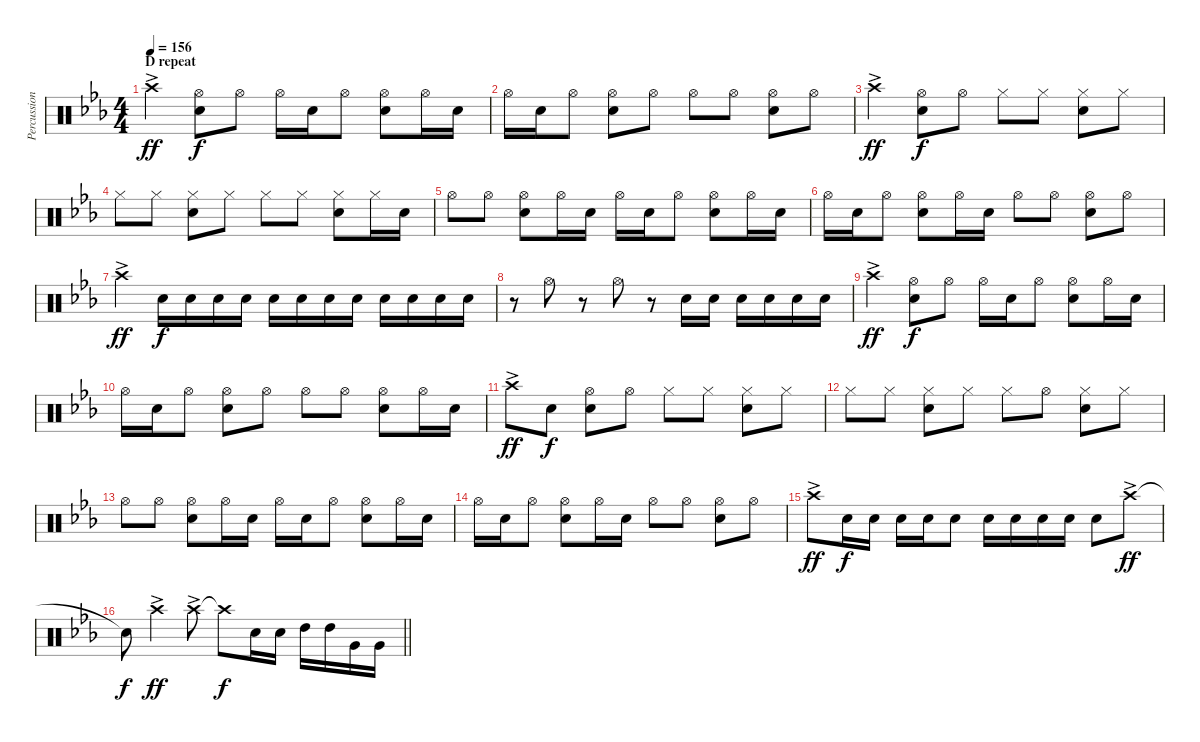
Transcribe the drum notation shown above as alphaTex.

\track ("Percussion hand" "Percussion") {instrument percussion}
\staff {score}
\articulation defaults
\ts (4 4)
\section ("" "D repeat")
\tempo 156
\clef neutral
\ks eb "Crash high (hit)"{ac}.4{dy ff}
("Hi-Hat (open)" "Snare (hit) 2").8{dy f} "Hi-Hat (open)".8 "Hi-Hat (open)".16 "Snare (hit) 2".16 "Hi-Hat (open)".8 ("Hi-Hat (open)" "Snare (hit) 2").8 "Hi-Hat (open)".16 "Snare (hit) 2".16 |
"Hi-Hat (open)".16 "Snare (hit) 2".16 "Hi-Hat (open)".8 ("Hi-Hat (open)" "Snare (hit) 2").8 "Hi-Hat (open)".8 "Hi-Hat (open)".8 "Hi-Hat (open)".8 ("Hi-Hat (open)" "Snare (hit) 2").8 "Hi-Hat (open)".8 |
"Crash high (hit)"{ac}.4{dy ff} ("Hi-Hat (open)" "Snare (hit) 2").8{dy f} "Hi-Hat (open)".8 "Hi-Hat (closed)".8 "Hi-Hat (closed)".8 ("Hi-Hat (closed)" "Snare (hit) 2").8 "Hi-Hat (closed)".8 |
"Hi-Hat (closed)".8 "Hi-Hat (closed)".8 ("Hi-Hat (closed)" "Snare (hit) 2").8 "Hi-Hat (closed)".8 "Hi-Hat (closed)".8 "Hi-Hat (closed)".8 ("Hi-Hat (closed)" "Snare (hit) 2").8 "Hi-Hat (closed)".16 "Snare (hit) 2".16 |
"Hi-Hat (open)".8 "Hi-Hat (open)".8 ("Hi-Hat (open)" "Snare (hit) 2").8 "Hi-Hat (open)".16 "Snare (hit) 2".16 "Hi-Hat (open)".16 "Snare (hit) 2".16 "Hi-Hat (open)".8 ("Hi-Hat (open)" "Snare (hit) 2").8 "Hi-Hat (open)".16 "Snare (hit) 2".16 |
"Hi-Hat (open)".16 "Snare (hit) 2".16 "Hi-Hat (open)".8 ("Hi-Hat (open)" "Snare (hit) 2").8 "Hi-Hat (open)".16 "Snare (hit) 2".16 "Hi-Hat (open)".8 "Hi-Hat (open)".8 ("Hi-Hat (open)" "Snare (hit) 2").8 "Hi-Hat (open)".8 |
"Crash high (hit)"{ac}.4{dy ff} "Snare (hit) 2".16{dy f} "Snare (hit) 2".16 "Snare (hit) 2".16 "Snare (hit) 2".16 "Snare (hit) 2".16 "Snare (hit) 2".16 "Snare (hit) 2".16 "Snare (hit) 2".16 "Snare (hit) 2".16 "Snare (hit) 2".16 "Snare (hit) 2".16 "Snare (hit) 2".16 |
r.8 "Hi-Hat (open)".8 r.8 "Hi-Hat (open)".8 r.8 "Snare (hit) 2".16 "Snare (hit) 2".16 "Snare (hit) 2".16 "Snare (hit) 2".16 "Snare (hit) 2".16 "Snare (hit) 2".16 |
"Crash high (hit)"{ac}.4{dy ff} ("Hi-Hat (open)" "Snare (hit) 2").8{dy f} "Hi-Hat (open)".8 "Hi-Hat (open)".16 "Snare (hit) 2".16 "Hi-Hat (open)".8 ("Hi-Hat (open)" "Snare (hit) 2").8 "Hi-Hat (open)".16 "Snare (hit) 2".16 |
"Hi-Hat (open)".16 "Snare (hit) 2".16 "Hi-Hat (open)".8 ("Hi-Hat (open)" "Snare (hit) 2").8 "Hi-Hat (open)".8 "Hi-Hat (open)".8 "Hi-Hat (open)".8 ("Hi-Hat (open)" "Snare (hit) 2").8 "Hi-Hat (open)".16 "Snare (hit) 2".16 |
"Crash high (hit)"{ac}.8{dy ff} "Snare (hit) 2".8{dy f} ("Hi-Hat (open)" "Snare (hit) 2").8 "Hi-Hat (open)".8 "Hi-Hat (closed)".8 "Hi-Hat (closed)".8 ("Hi-Hat (closed)" "Snare (hit) 2").8 "Hi-Hat (closed)".8 |
"Hi-Hat (closed)".8 "Hi-Hat (closed)".8 ("Hi-Hat (closed)" "Snare (hit) 2").8 "Hi-Hat (closed)".8 "Hi-Hat (closed)".8 "Hi-Hat (open)".8 ("Hi-Hat (closed)" "Snare (hit) 2").8 "Hi-Hat (closed)".8 |
"Hi-Hat (open)".8 "Hi-Hat (open)".8 ("Hi-Hat (open)" "Snare (hit) 2").8 "Hi-Hat (open)".16 "Snare (hit) 2".16 "Hi-Hat (open)".16 "Snare (hit) 2".16 "Hi-Hat (open)".8 ("Hi-Hat (open)" "Snare (hit) 2").8 "Hi-Hat (open)".16 "Snare (hit) 2".16 |
"Hi-Hat (open)".16 "Snare (hit) 2".16 "Hi-Hat (open)".8 ("Hi-Hat (open)" "Snare (hit) 2").8 "Hi-Hat (open)".16 "Snare (hit) 2".16 "Hi-Hat (open)".8 "Hi-Hat (open)".8 ("Hi-Hat (open)" "Snare (hit) 2").8 "Hi-Hat (open)".8 |
"Crash high (hit)"{ac}.8{dy ff} "Snare (hit) 2".16{dy f} "Snare (hit) 2".16 "Snare (hit) 2".16 "Snare (hit) 2".16 "Snare (hit) 2".8 "Snare (hit) 2".16 "Snare (hit) 2".16 "Snare (hit) 2".16 "Snare (hit) 2".16 "Snare (hit) 2".8 "Crash high (hit)"{ac}.8{dy ff} |
\barLineRight lightlight "Snare (hit)"{t}.8{dy f} "Crash high (hit)"{ac}.4{dy ff} "Crash high (hit)"{ac}.8 "Crash high (hit)"{t}.8{dy f} "Snare (hit) 2".16 "Snare (hit) 2".16 "High Tom (hit)".16 "High Tom (hit)".16 "Very Low Tom (hit)".16 "Very Low Tom (hit)".16
